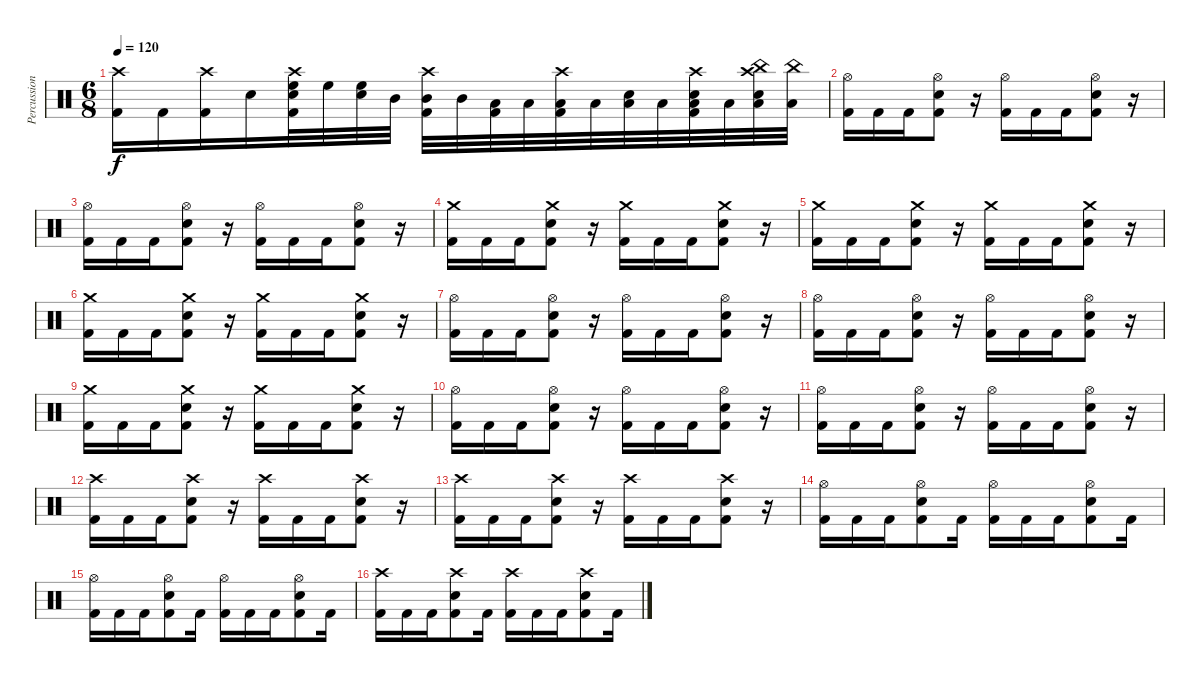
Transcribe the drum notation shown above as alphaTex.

\track ("Percussion" "Percussion") {instrument percussion}
\staff {score}
\articulation defaults
\ts (6 8)
\tempo 120
\clef neutral
\ks c
("Crash high (hit)" "Kick (hit) 2").16{dy f} "Kick (hit) 2".16 ("Crash high (hit)" "Kick (hit) 2").16 "Snare (hit) 2".16 ("Crash high (hit)" "High Floor Tom (hit)" "Snare (hit) 2" "Kick (hit) 2").32 "High Floor Tom (hit)".32 ("High Floor Tom (hit)" "Snare (hit) 2").32 "Mid Tom (hit)".32 ("Crash high (hit)" "Mid Tom (hit)" "Kick (hit) 2").32 "Mid Tom (hit)".32 ("Low Tom (hit)" "Kick (hit) 2").32 "Low Tom (hit)".32 ("Crash high (hit)" "Low Tom (hit)" "Kick (hit) 2").32 "Low Floor Tom (hit)".32 ("Low Floor Tom (hit)" "Snare (hit) 2").32 "Low Floor Tom (hit)".32 ("Crash high (hit)" "Low Floor Tom (hit)" "Snare (hit) 2" "Kick (hit) 2").32 "Low Floor Tom (hit)".32 ("China (hit)" "Low Floor Tom (hit)" "Crash high (hit)" "Snare (hit) 2").32 ("Low Floor Tom (hit)" "China (hit)").32 |
("Hi-Hat (open)" "Kick (hit) 2").16 "Kick (hit) 2".16 "Kick (hit) 2".16 ("Hi-Hat (open)" "Snare (hit) 2" "Kick (hit) 2").8 r.16 ("Hi-Hat (open)" "Kick (hit) 2").16 "Kick (hit) 2".16 "Kick (hit) 2".16 ("Hi-Hat (open)" "Snare (hit) 2" "Kick (hit) 2").8 r.16 |
("Hi-Hat (open)" "Kick (hit) 2").16 "Kick (hit) 2".16 "Kick (hit) 2".16 ("Hi-Hat (open)" "Snare (hit) 2" "Kick (hit) 2").8 r.16 ("Hi-Hat (open)" "Kick (hit) 2").16 "Kick (hit) 2".16 "Kick (hit) 2".16 ("Hi-Hat (open)" "Snare (hit) 2" "Kick (hit) 2").8 r.16 |
("Crash medium (hit)" "Kick (hit) 2").16 "Kick (hit) 2".16 "Kick (hit) 2".16 ("Crash medium (hit)" "Snare (hit) 2" "Kick (hit) 2").8 r.16 ("Crash medium (hit)" "Kick (hit) 2").16 "Kick (hit) 2".16 "Kick (hit) 2".16 ("Crash medium (hit)" "Snare (hit) 2" "Kick (hit) 2").8 r.16 |
("Crash medium (hit)" "Kick (hit) 2").16 "Kick (hit) 2".16 "Kick (hit) 2".16 ("Crash medium (hit)" "Snare (hit) 2" "Kick (hit) 2").8 r.16 ("Crash medium (hit)" "Kick (hit) 2").16 "Kick (hit) 2".16 "Kick (hit) 2".16 ("Crash medium (hit)" "Snare (hit) 2" "Kick (hit) 2").8 r.16 |
("Crash medium (hit)" "Kick (hit) 2").16 "Kick (hit) 2".16 "Kick (hit) 2".16 ("Crash medium (hit)" "Snare (hit) 2" "Kick (hit) 2").8 r.16 ("Crash medium (hit)" "Kick (hit) 2").16 "Kick (hit) 2".16 "Kick (hit) 2".16 ("Crash medium (hit)" "Snare (hit) 2" "Kick (hit) 2").8 r.16 |
("Hi-Hat (open)" "Kick (hit) 2").16 "Kick (hit) 2".16 "Kick (hit) 2".16 ("Hi-Hat (open)" "Snare (hit) 2" "Kick (hit) 2").8 r.16 ("Hi-Hat (open)" "Kick (hit) 2").16 "Kick (hit) 2".16 "Kick (hit) 2".16 ("Hi-Hat (open)" "Snare (hit) 2" "Kick (hit) 2").8 r.16 |
("Hi-Hat (open)" "Kick (hit) 2").16 "Kick (hit) 2".16 "Kick (hit) 2".16 ("Hi-Hat (open)" "Snare (hit) 2" "Kick (hit) 2").8 r.16 ("Hi-Hat (open)" "Kick (hit) 2").16 "Kick (hit) 2".16 "Kick (hit) 2".16 ("Hi-Hat (open)" "Snare (hit) 2" "Kick (hit) 2").8 r.16 |
("Crash medium (hit)" "Kick (hit) 2").16 "Kick (hit) 2".16 "Kick (hit) 2".16 ("Crash medium (hit)" "Snare (hit) 2" "Kick (hit) 2").8 r.16 ("Crash medium (hit)" "Kick (hit) 2").16 "Kick (hit) 2".16 "Kick (hit) 2".16 ("Crash medium (hit)" "Snare (hit) 2" "Kick (hit) 2").8 r.16 |
("Hi-Hat (open)" "Kick (hit) 2").16 "Kick (hit) 2".16 "Kick (hit) 2".16 ("Hi-Hat (open)" "Snare (hit) 2" "Kick (hit) 2").8 r.16 ("Hi-Hat (open)" "Kick (hit) 2").16 "Kick (hit) 2".16 "Kick (hit) 2".16 ("Hi-Hat (open)" "Snare (hit) 2" "Kick (hit) 2").8 r.16 |
("Hi-Hat (open)" "Kick (hit) 2").16 "Kick (hit) 2".16 "Kick (hit) 2".16 ("Hi-Hat (open)" "Snare (hit) 2" "Kick (hit) 2").8 r.16 ("Hi-Hat (open)" "Kick (hit) 2").16 "Kick (hit) 2".16 "Kick (hit) 2".16 ("Hi-Hat (open)" "Snare (hit) 2" "Kick (hit) 2").8 r.16 |
("Crash high (hit)" "Kick (hit) 2").16 "Kick (hit) 2".16 "Kick (hit) 2".16 ("Crash high (hit)" "Snare (hit) 2" "Kick (hit) 2").8 r.16 ("Crash high (hit)" "Kick (hit) 2").16 "Kick (hit) 2".16 "Kick (hit) 2".16 ("Crash high (hit)" "Snare (hit) 2" "Kick (hit) 2").8 r.16 |
("Crash high (hit)" "Kick (hit) 2").16 "Kick (hit) 2".16 "Kick (hit) 2".16 ("Crash high (hit)" "Snare (hit) 2" "Kick (hit) 2").8 r.16 ("Crash high (hit)" "Kick (hit) 2").16 "Kick (hit) 2".16 "Kick (hit) 2".16 ("Crash high (hit)" "Snare (hit) 2" "Kick (hit) 2").8 r.16 |
("Hi-Hat (open)" "Kick (hit) 2").16 "Kick (hit) 2".16 "Kick (hit) 2".16 ("Hi-Hat (open)" "Snare (hit) 2" "Kick (hit) 2").8 "Kick (hit) 2".16 ("Hi-Hat (open)" "Kick (hit) 2").16 "Kick (hit) 2".16 "Kick (hit) 2".16 ("Hi-Hat (open)" "Snare (hit) 2" "Kick (hit) 2").8 "Kick (hit) 2".16 |
("Hi-Hat (open)" "Kick (hit) 2").16 "Kick (hit) 2".16 "Kick (hit) 2".16 ("Hi-Hat (open)" "Snare (hit) 2" "Kick (hit) 2").8 "Kick (hit) 2".16 ("Hi-Hat (open)" "Kick (hit) 2").16 "Kick (hit) 2".16 "Kick (hit) 2".16 ("Hi-Hat (open)" "Snare (hit) 2" "Kick (hit) 2").8 "Kick (hit) 2".16 |
("Crash high (hit)" "Kick (hit) 2").16 "Kick (hit) 2".16 "Kick (hit) 2".16 ("Crash high (hit)" "Snare (hit) 2" "Kick (hit) 2").8 "Kick (hit) 2".16 ("Crash high (hit)" "Kick (hit) 2").16 "Kick (hit) 2".16 "Kick (hit) 2".16 ("Crash high (hit)" "Snare (hit) 2" "Kick (hit) 2").8 "Kick (hit) 2".16
